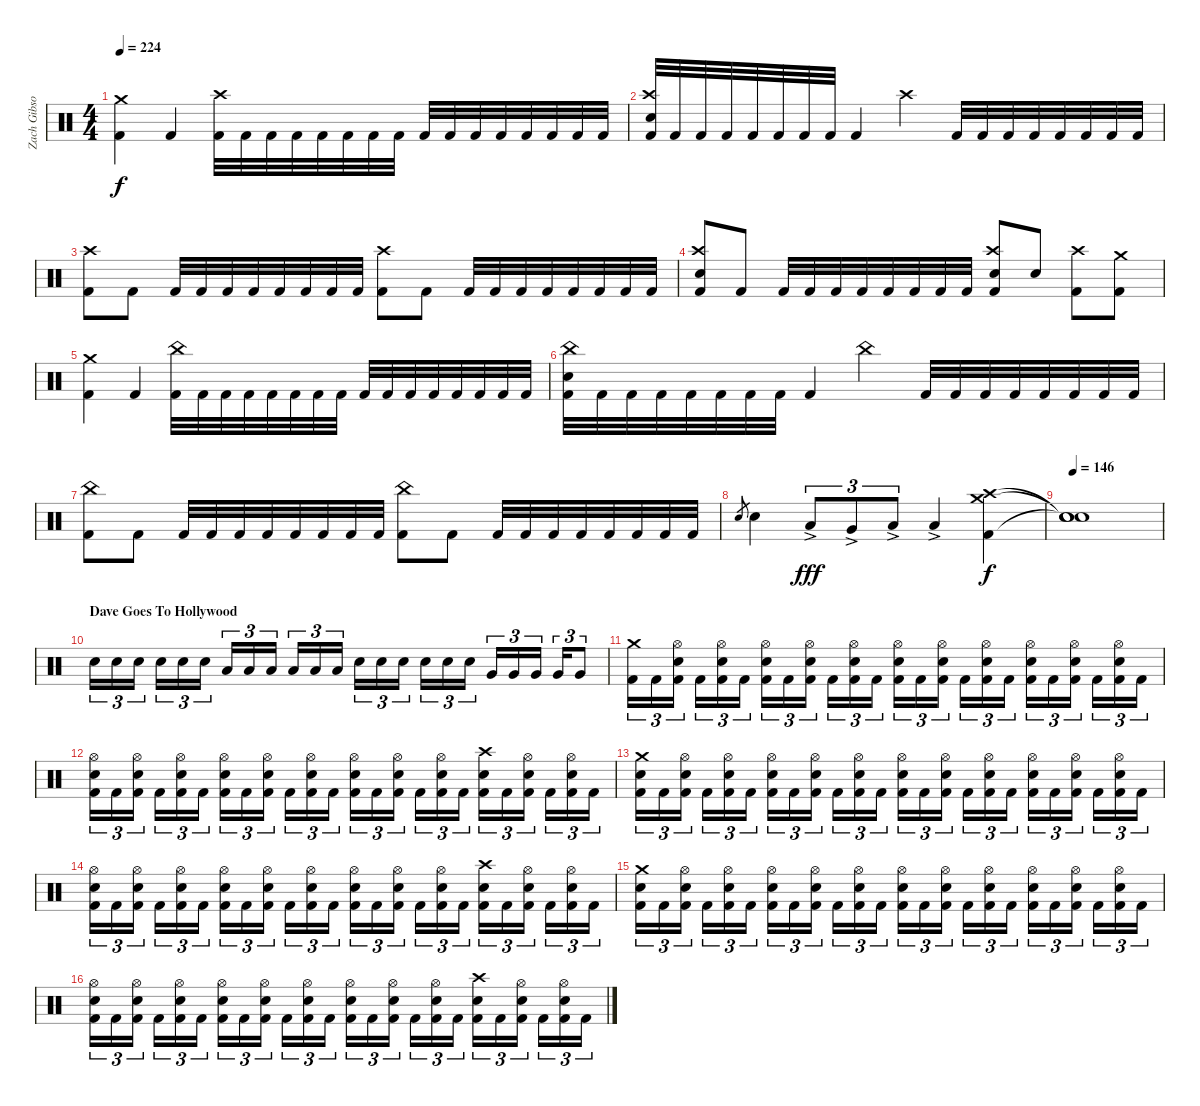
\track ("Zach Gibson (Drums)" "Zach Gibso") {instrument percussion}
\staff {score}
\articulation defaults
\ts (4 4)
\tempo 224
\clef neutral
\ks c
("Crash medium (hit)" "Kick (hit) 2").4{dy f} "Kick (hit) 2".4 ("Crash high (hit)" "Kick (hit) 2").32 "Kick (hit) 2".32 "Kick (hit) 2".32 "Kick (hit) 2".32 "Kick (hit) 2".32 "Kick (hit) 2".32 "Kick (hit) 2".32 "Kick (hit) 2".32 "Kick (hit) 2".32 "Kick (hit) 2".32 "Kick (hit) 2".32 "Kick (hit) 2".32 "Kick (hit) 2".32 "Kick (hit) 2".32 "Kick (hit) 2".32 "Kick (hit) 2".32 |
("Kick (hit) 2" "Crash high (hit)" "Snare (hit) 2").32 "Kick (hit) 2".32 "Kick (hit) 2".32 "Kick (hit) 2".32 "Kick (hit) 2".32 "Kick (hit) 2".32 "Kick (hit) 2".32 "Kick (hit) 2".32 "Kick (hit) 2".4 "Crash high (hit)".4 "Kick (hit) 2".32 "Kick (hit) 2".32 "Kick (hit) 2".32 "Kick (hit) 2".32 "Kick (hit) 2".32 "Kick (hit) 2".32 "Kick (hit) 2".32 "Kick (hit) 2".32 |
("Crash high (hit)" "Kick (hit) 2").8 "Kick (hit) 2".8 "Kick (hit) 2".32 "Kick (hit) 2".32 "Kick (hit) 2".32 "Kick (hit) 2".32 "Kick (hit) 2".32 "Kick (hit) 2".32 "Kick (hit) 2".32 "Kick (hit) 2".32 ("Crash high (hit)" "Kick (hit) 2").8 "Kick (hit) 2".8 "Kick (hit) 2".32 "Kick (hit) 2".32 "Kick (hit) 2".32 "Kick (hit) 2".32 "Kick (hit) 2".32 "Kick (hit) 2".32 "Kick (hit) 2".32 "Kick (hit) 2".32 |
("Snare (hit) 2" "Crash high (hit)" "Kick (hit) 2").8 "Kick (hit) 2".8 "Kick (hit) 2".32 "Kick (hit) 2".32 "Kick (hit) 2".32 "Kick (hit) 2".32 "Kick (hit) 2".32 "Kick (hit) 2".32 "Kick (hit) 2".32 "Kick (hit) 2".32 ("Snare (hit) 2" "Crash high (hit)" "Kick (hit) 2").8 "Snare (hit) 2".8 ("Crash high (hit)" "Kick (hit) 2").8 ("Crash medium (hit)" "Kick (hit) 2").8 |
("Crash medium (hit)" "Kick (hit) 2").4 "Kick (hit) 2".4 ("China (hit)" "Kick (hit) 2").32 "Kick (hit) 2".32 "Kick (hit) 2".32 "Kick (hit) 2".32 "Kick (hit) 2".32 "Kick (hit) 2".32 "Kick (hit) 2".32 "Kick (hit) 2".32 "Kick (hit) 2".32 "Kick (hit) 2".32 "Kick (hit) 2".32 "Kick (hit) 2".32 "Kick (hit) 2".32 "Kick (hit) 2".32 "Kick (hit) 2".32 "Kick (hit) 2".32 |
("Kick (hit) 2" "China (hit)" "Snare (hit) 2").32 "Kick (hit) 2".32 "Kick (hit) 2".32 "Kick (hit) 2".32 "Kick (hit) 2".32 "Kick (hit) 2".32 "Kick (hit) 2".32 "Kick (hit) 2".32 "Kick (hit) 2".4 "China (hit)".4 "Kick (hit) 2".32 "Kick (hit) 2".32 "Kick (hit) 2".32 "Kick (hit) 2".32 "Kick (hit) 2".32 "Kick (hit) 2".32 "Kick (hit) 2".32 "Kick (hit) 2".32 |
("China (hit)" "Kick (hit) 2").8 "Kick (hit) 2".8 "Kick (hit) 2".32 "Kick (hit) 2".32 "Kick (hit) 2".32 "Kick (hit) 2".32 "Kick (hit) 2".32 "Kick (hit) 2".32 "Kick (hit) 2".32 "Kick (hit) 2".32 ("China (hit)" "Kick (hit) 2").8 "Kick (hit) 2".8 "Kick (hit) 2".32 "Kick (hit) 2".32 "Kick (hit) 2".32 "Kick (hit) 2".32 "Kick (hit) 2".32 "Kick (hit) 2".32 "Kick (hit) 2".32 "Kick (hit) 2".32 |
"Snare (hit) 2".8{gr} "Snare (hit) 2".4 "Low Tom (hit)"{ac}.8{tu (3 2) dy fff} "Very Low Tom (hit)"{ac}.8{tu (3 2)} "Low Floor Tom (hit)"{ac}.8{tu (3 2)} "Low Floor Tom (hit)"{ac}.4 ("Crash medium (hit)" "Crash high (hit)" "Kick (hit) 2").4{dy f} |
\tempo 146
("Snare (hit)"{t} "Snare (hit)"{t} "Snare (hit)"{t}).1 |
\section ("" "Dave Goes To Hollywood")
"Snare (hit) 2".16{tu (3 2)} "Snare (hit) 2".16{tu (3 2)} "Snare (hit) 2".16{tu (3 2)} "Snare (hit) 2".16{tu (3 2)} "Snare (hit) 2".16{tu (3 2)} "Snare (hit) 2".16{tu (3 2)} "Low Tom (hit)".16{tu (3 2)} "Low Tom (hit)".16{tu (3 2)} "Low Tom (hit)".16{tu (3 2)} "Low Tom (hit)".16{tu (3 2)} "Low Tom (hit)".16{tu (3 2)} "Low Tom (hit)".16{tu (3 2)} "Snare (hit) 2".16{tu (3 2)} "Snare (hit) 2".16{tu (3 2)} "Snare (hit) 2".16{tu (3 2)} "Snare (hit) 2".16{tu (3 2)} "Snare (hit) 2".16{tu (3 2)} "Snare (hit) 2".16{tu (3 2)} "Very Low Tom (hit)".16{tu (3 2)} "Very Low Tom (hit)".16{tu (3 2)} "Very Low Tom (hit)".16{tu (3 2)} "Very Low Tom (hit)".16{tu (3 2)} "Very Low Tom (hit)".8{tu (3 2)} |
("Crash medium (hit)" "Kick (hit) 2").16{tu (3 2)} "Kick (hit) 2".16{tu (3 2)} ("Hi-Hat (open)" "Snare (hit) 2" "Kick (hit) 2").16{tu (3 2)} "Kick (hit) 2".16{tu (3 2)} ("Hi-Hat (open)" "Snare (hit) 2" "Kick (hit) 2").16{tu (3 2)} "Kick (hit) 2".16{tu (3 2)} ("Hi-Hat (open)" "Snare (hit) 2" "Kick (hit) 2").16{tu (3 2)} "Kick (hit) 2".16{tu (3 2)} ("Hi-Hat (open)" "Snare (hit) 2" "Kick (hit) 2").16{tu (3 2)} "Kick (hit) 2".16{tu (3 2)} ("Hi-Hat (open)" "Snare (hit) 2" "Kick (hit) 2").16{tu (3 2)} "Kick (hit) 2".16{tu (3 2)} ("Hi-Hat (open)" "Snare (hit) 2" "Kick (hit) 2").16{tu (3 2)} "Kick (hit) 2".16{tu (3 2)} ("Hi-Hat (open)" "Snare (hit) 2" "Kick (hit) 2").16{tu (3 2)} "Kick (hit) 2".16{tu (3 2)} ("Hi-Hat (open)" "Snare (hit) 2" "Kick (hit) 2").16{tu (3 2)} "Kick (hit) 2".16{tu (3 2)} ("Hi-Hat (open)" "Snare (hit) 2" "Kick (hit) 2").16{tu (3 2)} "Kick (hit) 2".16{tu (3 2)} ("Hi-Hat (open)" "Snare (hit) 2" "Kick (hit) 2").16{tu (3 2)} "Kick (hit) 2".16{tu (3 2)} ("Hi-Hat (open)" "Snare (hit) 2" "Kick (hit) 2").16{tu (3 2)} "Kick (hit) 2".16{tu (3 2)} |
("Hi-Hat (open)" "Snare (hit) 2" "Kick (hit) 2").16{tu (3 2)} "Kick (hit) 2".16{tu (3 2)} ("Hi-Hat (open)" "Snare (hit) 2" "Kick (hit) 2").16{tu (3 2)} "Kick (hit) 2".16{tu (3 2)} ("Hi-Hat (open)" "Snare (hit) 2" "Kick (hit) 2").16{tu (3 2)} "Kick (hit) 2".16{tu (3 2)} ("Hi-Hat (open)" "Snare (hit) 2" "Kick (hit) 2").16{tu (3 2)} "Kick (hit) 2".16{tu (3 2)} ("Hi-Hat (open)" "Snare (hit) 2" "Kick (hit) 2").16{tu (3 2)} "Kick (hit) 2".16{tu (3 2)} ("Hi-Hat (open)" "Snare (hit) 2" "Kick (hit) 2").16{tu (3 2)} "Kick (hit) 2".16{tu (3 2)} ("Hi-Hat (open)" "Snare (hit) 2" "Kick (hit) 2").16{tu (3 2)} "Kick (hit) 2".16{tu (3 2)} ("Hi-Hat (open)" "Snare (hit) 2" "Kick (hit) 2").16{tu (3 2)} "Kick (hit) 2".16{tu (3 2)} ("Hi-Hat (open)" "Snare (hit) 2" "Kick (hit) 2").16{tu (3 2)} "Kick (hit) 2".16{tu (3 2)} ("Crash high (hit)" "Snare (hit) 2" "Kick (hit) 2").16{tu (3 2)} "Kick (hit) 2".16{tu (3 2)} ("Hi-Hat (open)" "Snare (hit) 2" "Kick (hit) 2").16{tu (3 2)} "Kick (hit) 2".16{tu (3 2)} ("Hi-Hat (open)" "Snare (hit) 2" "Kick (hit) 2").16{tu (3 2)} "Kick (hit) 2".16{tu (3 2)} |
("Crash medium (hit)" "Snare (hit) 2" "Kick (hit) 2").16{tu (3 2)} "Kick (hit) 2".16{tu (3 2)} ("Hi-Hat (open)" "Snare (hit) 2" "Kick (hit) 2").16{tu (3 2)} "Kick (hit) 2".16{tu (3 2)} ("Hi-Hat (open)" "Snare (hit) 2" "Kick (hit) 2").16{tu (3 2)} "Kick (hit) 2".16{tu (3 2)} ("Hi-Hat (open)" "Snare (hit) 2" "Kick (hit) 2").16{tu (3 2)} "Kick (hit) 2".16{tu (3 2)} ("Hi-Hat (open)" "Snare (hit) 2" "Kick (hit) 2").16{tu (3 2)} "Kick (hit) 2".16{tu (3 2)} ("Hi-Hat (open)" "Snare (hit) 2" "Kick (hit) 2").16{tu (3 2)} "Kick (hit) 2".16{tu (3 2)} ("Hi-Hat (open)" "Snare (hit) 2" "Kick (hit) 2").16{tu (3 2)} "Kick (hit) 2".16{tu (3 2)} ("Hi-Hat (open)" "Snare (hit) 2" "Kick (hit) 2").16{tu (3 2)} "Kick (hit) 2".16{tu (3 2)} ("Hi-Hat (open)" "Snare (hit) 2" "Kick (hit) 2").16{tu (3 2)} "Kick (hit) 2".16{tu (3 2)} ("Hi-Hat (open)" "Snare (hit) 2" "Kick (hit) 2").16{tu (3 2)} "Kick (hit) 2".16{tu (3 2)} ("Hi-Hat (open)" "Snare (hit) 2" "Kick (hit) 2").16{tu (3 2)} "Kick (hit) 2".16{tu (3 2)} ("Hi-Hat (open)" "Snare (hit) 2" "Kick (hit) 2").16{tu (3 2)} "Kick (hit) 2".16{tu (3 2)} |
("Hi-Hat (open)" "Snare (hit) 2" "Kick (hit) 2").16{tu (3 2)} "Kick (hit) 2".16{tu (3 2)} ("Hi-Hat (open)" "Snare (hit) 2" "Kick (hit) 2").16{tu (3 2)} "Kick (hit) 2".16{tu (3 2)} ("Hi-Hat (open)" "Snare (hit) 2" "Kick (hit) 2").16{tu (3 2)} "Kick (hit) 2".16{tu (3 2)} ("Hi-Hat (open)" "Snare (hit) 2" "Kick (hit) 2").16{tu (3 2)} "Kick (hit) 2".16{tu (3 2)} ("Hi-Hat (open)" "Snare (hit) 2" "Kick (hit) 2").16{tu (3 2)} "Kick (hit) 2".16{tu (3 2)} ("Hi-Hat (open)" "Snare (hit) 2" "Kick (hit) 2").16{tu (3 2)} "Kick (hit) 2".16{tu (3 2)} ("Hi-Hat (open)" "Snare (hit) 2" "Kick (hit) 2").16{tu (3 2)} "Kick (hit) 2".16{tu (3 2)} ("Hi-Hat (open)" "Snare (hit) 2" "Kick (hit) 2").16{tu (3 2)} "Kick (hit) 2".16{tu (3 2)} ("Hi-Hat (open)" "Snare (hit) 2" "Kick (hit) 2").16{tu (3 2)} "Kick (hit) 2".16{tu (3 2)} ("Crash high (hit)" "Snare (hit) 2" "Kick (hit) 2").16{tu (3 2)} "Kick (hit) 2".16{tu (3 2)} ("Hi-Hat (open)" "Snare (hit) 2" "Kick (hit) 2").16{tu (3 2)} "Kick (hit) 2".16{tu (3 2)} ("Hi-Hat (open)" "Snare (hit) 2" "Kick (hit) 2").16{tu (3 2)} "Kick (hit) 2".16{tu (3 2)} |
("Crash medium (hit)" "Snare (hit) 2" "Kick (hit) 2").16{tu (3 2)} "Kick (hit) 2".16{tu (3 2)} ("Hi-Hat (open)" "Snare (hit) 2" "Kick (hit) 2").16{tu (3 2)} "Kick (hit) 2".16{tu (3 2)} ("Hi-Hat (open)" "Snare (hit) 2" "Kick (hit) 2").16{tu (3 2)} "Kick (hit) 2".16{tu (3 2)} ("Hi-Hat (open)" "Snare (hit) 2" "Kick (hit) 2").16{tu (3 2)} "Kick (hit) 2".16{tu (3 2)} ("Hi-Hat (open)" "Snare (hit) 2" "Kick (hit) 2").16{tu (3 2)} "Kick (hit) 2".16{tu (3 2)} ("Hi-Hat (open)" "Snare (hit) 2" "Kick (hit) 2").16{tu (3 2)} "Kick (hit) 2".16{tu (3 2)} ("Hi-Hat (open)" "Snare (hit) 2" "Kick (hit) 2").16{tu (3 2)} "Kick (hit) 2".16{tu (3 2)} ("Hi-Hat (open)" "Snare (hit) 2" "Kick (hit) 2").16{tu (3 2)} "Kick (hit) 2".16{tu (3 2)} ("Hi-Hat (open)" "Snare (hit) 2" "Kick (hit) 2").16{tu (3 2)} "Kick (hit) 2".16{tu (3 2)} ("Hi-Hat (open)" "Snare (hit) 2" "Kick (hit) 2").16{tu (3 2)} "Kick (hit) 2".16{tu (3 2)} ("Hi-Hat (open)" "Snare (hit) 2" "Kick (hit) 2").16{tu (3 2)} "Kick (hit) 2".16{tu (3 2)} ("Hi-Hat (open)" "Snare (hit) 2" "Kick (hit) 2").16{tu (3 2)} "Kick (hit) 2".16{tu (3 2)} |
("Hi-Hat (open)" "Snare (hit) 2" "Kick (hit) 2").16{tu (3 2)} "Kick (hit) 2".16{tu (3 2)} ("Hi-Hat (open)" "Snare (hit) 2" "Kick (hit) 2").16{tu (3 2)} "Kick (hit) 2".16{tu (3 2)} ("Hi-Hat (open)" "Snare (hit) 2" "Kick (hit) 2").16{tu (3 2)} "Kick (hit) 2".16{tu (3 2)} ("Hi-Hat (open)" "Snare (hit) 2" "Kick (hit) 2").16{tu (3 2)} "Kick (hit) 2".16{tu (3 2)} ("Hi-Hat (open)" "Snare (hit) 2" "Kick (hit) 2").16{tu (3 2)} "Kick (hit) 2".16{tu (3 2)} ("Hi-Hat (open)" "Snare (hit) 2" "Kick (hit) 2").16{tu (3 2)} "Kick (hit) 2".16{tu (3 2)} ("Hi-Hat (open)" "Snare (hit) 2" "Kick (hit) 2").16{tu (3 2)} "Kick (hit) 2".16{tu (3 2)} ("Hi-Hat (open)" "Snare (hit) 2" "Kick (hit) 2").16{tu (3 2)} "Kick (hit) 2".16{tu (3 2)} ("Hi-Hat (open)" "Snare (hit) 2" "Kick (hit) 2").16{tu (3 2)} "Kick (hit) 2".16{tu (3 2)} ("Crash high (hit)" "Snare (hit) 2" "Kick (hit) 2").16{tu (3 2)} "Kick (hit) 2".16{tu (3 2)} ("Hi-Hat (open)" "Snare (hit) 2" "Kick (hit) 2").16{tu (3 2)} "Kick (hit) 2".16{tu (3 2)} ("Hi-Hat (open)" "Snare (hit) 2" "Kick (hit) 2").16{tu (3 2)} "Kick (hit) 2".16{tu (3 2)}
